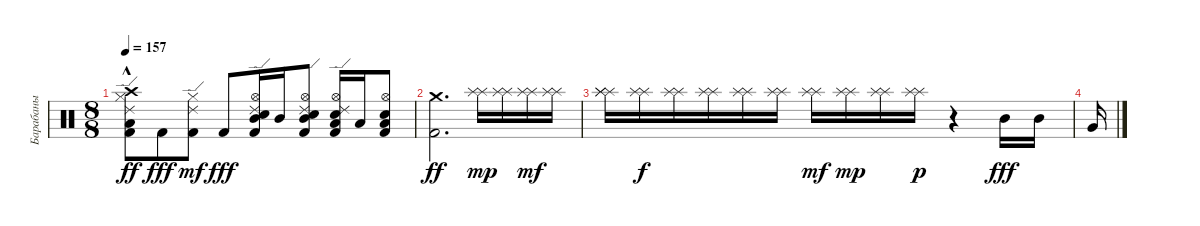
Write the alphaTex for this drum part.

\track ("Барабаны" "Барабаны") {instrument percussion}
\staff {score}
\articulation defaults
\ts (8 8)
\tempo 157
\clef neutral
\ks c
("Kick (hit) 2" "Hi-Hat (closed)" "Ride (edge) 2" "Low Floor Tom (hit)" "Crash high (hit)"{hac}).8{dy ff} "Kick (hit) 2".8{dy fff} ("Kick (hit) 2" "Hi-Hat (closed)" "Ride (edge) 2").8{dy mf} "Kick (hit) 2".8{dy fff} ("Kick (hit) 2" "Snare (hit) 2" "Hi-Hat (open)" "Ride (edge) 2" "Mid Tom (hit)").16 "Mid Tom (hit)".16 ("Kick (hit) 2" "Snare (hit) 2" "Hi-Hat (open)" "Ride (edge) 2" "Mid Tom (hit)").8 ("Kick (hit) 2" "Snare (hit) 2" "Hi-Hat (open)" "Ride (edge) 2" "Low Tom (hit)").16 "Low Tom (hit)".16 ("Kick (hit) 2" "Snare (hit) 2" "Hi-Hat (open)" "Low Tom (hit)").8 |
("Kick (hit) 2" "Crash medium (hit)").2{d dy ff} ("Splash (hit)" "Splash (hit)").16{dy mp} ("Splash (hit)" "Splash (hit)").16 ("Splash (hit)" "Splash (hit)").16{dy mf} ("Splash (hit)" "Splash (hit)").16 |
("Splash (hit)" "Splash (hit)" "Splash (hit)").16 ("Splash (hit)" "Splash (hit)").16{dy f} ("Splash (hit)" "Splash (hit)").16 ("Splash (hit)" "Splash (hit)").16 ("Splash (hit)" "Splash (hit)").16 ("Splash (hit)" "Splash (hit)").16 ("Splash (hit)" "Splash (hit)").16{dy mf} ("Splash (hit)" "Splash (hit)").16{dy mp} ("Splash (hit)" "Splash (hit)").16 ("Splash (hit)" "Splash (hit)").16{dy p} r.4 "Mid Tom (hit)".16{dy fff} "Mid Tom (hit)".16 |
"Very Low Tom (hit)".16
